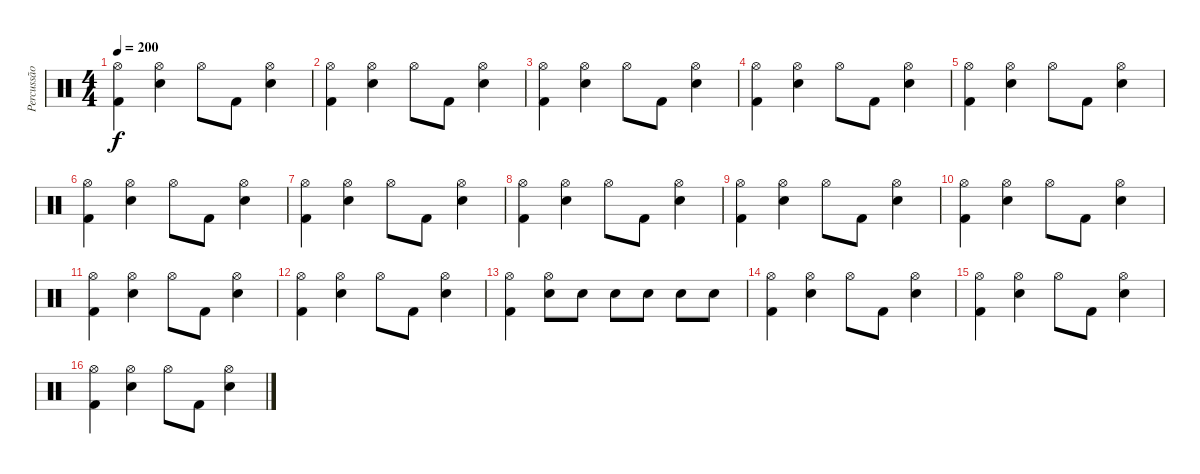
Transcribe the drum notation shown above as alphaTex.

\track ("Percussão" "Percussão") {instrument percussion}
\staff {score}
\articulation defaults
\ts (4 4)
\tempo 200
\clef neutral
\ks c
("Hi-Hat (open)" "Kick (hit) 2").4{dy f} ("Hi-Hat (open)" "Electric Snare (hit)").4 "Hi-Hat (open)".8 "Kick (hit) 2".8 ("Hi-Hat (open)" "Electric Snare (hit)").4 |
("Hi-Hat (open)" "Kick (hit) 2").4 ("Hi-Hat (open)" "Electric Snare (hit)").4 "Hi-Hat (open)".8 "Kick (hit) 2".8 ("Hi-Hat (open)" "Electric Snare (hit)").4 |
("Hi-Hat (open)" "Kick (hit) 2").4 ("Hi-Hat (open)" "Electric Snare (hit)").4 "Hi-Hat (open)".8 "Kick (hit) 2".8 ("Hi-Hat (open)" "Electric Snare (hit)").4 |
("Hi-Hat (open)" "Kick (hit) 2").4 ("Hi-Hat (open)" "Electric Snare (hit)").4 "Hi-Hat (open)".8 "Kick (hit) 2".8 ("Hi-Hat (open)" "Electric Snare (hit)").4 |
("Hi-Hat (open)" "Kick (hit) 2").4 ("Hi-Hat (open)" "Electric Snare (hit)").4 "Hi-Hat (open)".8 "Kick (hit) 2".8 ("Hi-Hat (open)" "Electric Snare (hit)").4 |
("Hi-Hat (open)" "Kick (hit) 2").4 ("Hi-Hat (open)" "Electric Snare (hit)").4 "Hi-Hat (open)".8 "Kick (hit) 2".8 ("Hi-Hat (open)" "Electric Snare (hit)").4 |
("Hi-Hat (open)" "Kick (hit) 2").4 ("Hi-Hat (open)" "Electric Snare (hit)").4 "Hi-Hat (open)".8 "Kick (hit) 2".8 ("Hi-Hat (open)" "Electric Snare (hit)").4 |
("Hi-Hat (open)" "Kick (hit) 2").4 ("Hi-Hat (open)" "Electric Snare (hit)").4 "Hi-Hat (open)".8 "Kick (hit) 2".8 ("Hi-Hat (open)" "Electric Snare (hit)").4 |
("Hi-Hat (open)" "Kick (hit) 2").4 ("Hi-Hat (open)" "Electric Snare (hit)").4 "Hi-Hat (open)".8 "Kick (hit) 2".8 ("Hi-Hat (open)" "Electric Snare (hit)").4 |
("Hi-Hat (open)" "Kick (hit) 2").4 ("Hi-Hat (open)" "Electric Snare (hit)").4 "Hi-Hat (open)".8 "Kick (hit) 2".8 ("Hi-Hat (open)" "Electric Snare (hit)").4 |
("Hi-Hat (open)" "Kick (hit) 2").4 ("Hi-Hat (open)" "Electric Snare (hit)").4 "Hi-Hat (open)".8 "Kick (hit) 2".8 ("Hi-Hat (open)" "Electric Snare (hit)").4 |
("Hi-Hat (open)" "Kick (hit) 2").4 ("Hi-Hat (open)" "Electric Snare (hit)").4 "Hi-Hat (open)".8 "Kick (hit) 2".8 ("Hi-Hat (open)" "Electric Snare (hit)").4 |
("Hi-Hat (open)" "Kick (hit) 2").4 ("Hi-Hat (open)" "Electric Snare (hit)").8 "Electric Snare (hit)".8 "Electric Snare (hit)".8 "Electric Snare (hit)".8 "Electric Snare (hit)".8 "Electric Snare (hit)".8 |
("Hi-Hat (open)" "Kick (hit) 2").4 ("Hi-Hat (open)" "Electric Snare (hit)").4 "Hi-Hat (open)".8 "Kick (hit) 2".8 ("Hi-Hat (open)" "Electric Snare (hit)").4 |
("Hi-Hat (open)" "Kick (hit) 2").4 ("Hi-Hat (open)" "Electric Snare (hit)").4 "Hi-Hat (open)".8 "Kick (hit) 2".8 ("Hi-Hat (open)" "Electric Snare (hit)").4 |
("Hi-Hat (open)" "Kick (hit) 2").4 ("Hi-Hat (open)" "Electric Snare (hit)").4 "Hi-Hat (open)".8 "Kick (hit) 2".8 ("Hi-Hat (open)" "Electric Snare (hit)").4
